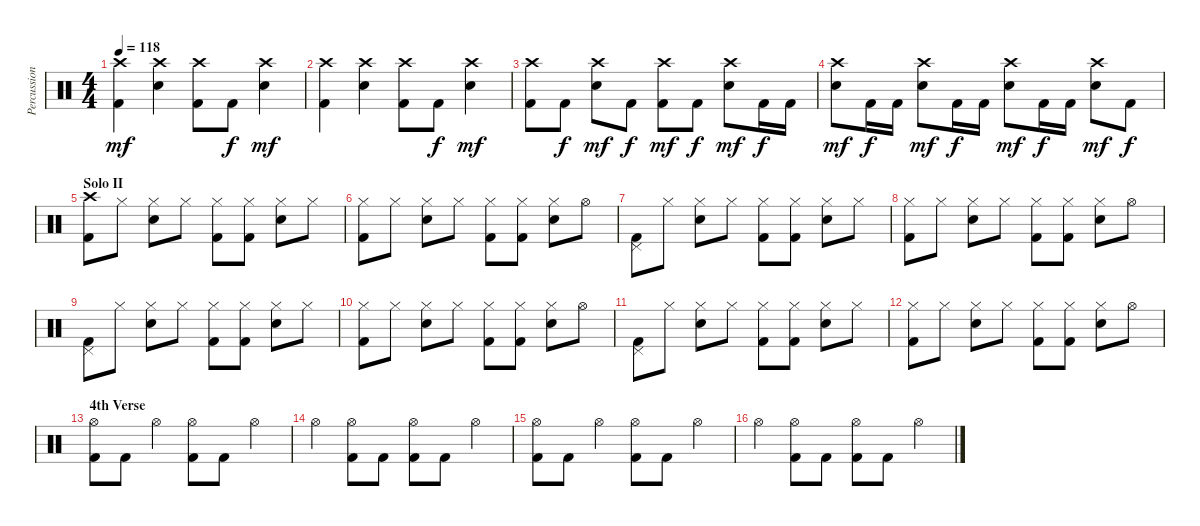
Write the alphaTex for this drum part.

\track ("Percussion" "Percussion") {instrument percussion}
\staff {score}
\articulation defaults
\ts (4 4)
\tempo 118
\clef neutral
\ks c
("Kick (hit) 2" "Crash high (hit)").4{dy mf} ("Electric Snare (hit)" "Crash high (hit)").4 ("Kick (hit) 2" "Crash high (hit)").8 "Kick (hit) 2".8{dy f} ("Electric Snare (hit)" "Crash high (hit)").4{dy mf} |
("Kick (hit) 2" "Crash high (hit)").4 ("Electric Snare (hit)" "Crash high (hit)").4 ("Kick (hit) 2" "Crash high (hit)").8 "Kick (hit) 2".8{dy f} ("Electric Snare (hit)" "Crash high (hit)").4{dy mf} |
("Kick (hit) 2" "Crash high (hit)").8 "Kick (hit) 2".8{dy f} ("Electric Snare (hit)" "Crash high (hit)").8{dy mf} "Kick (hit) 2".8{dy f} ("Kick (hit) 2" "Crash high (hit)").8{dy mf} "Kick (hit) 2".8{dy f} ("Electric Snare (hit)" "Crash high (hit)").8{dy mf} "Kick (hit) 2".16{dy f} "Kick (hit) 2".16 |
("Electric Snare (hit)" "Crash high (hit)").8{dy mf} "Kick (hit) 2".16{dy f} "Kick (hit) 2".16 ("Electric Snare (hit)" "Crash high (hit)").8{dy mf} "Kick (hit) 2".16{dy f} "Kick (hit) 2".16 ("Electric Snare (hit)" "Crash high (hit)").8{dy mf} "Kick (hit) 2".16{dy f} "Kick (hit) 2".16 ("Electric Snare (hit)" "Crash high (hit)").8{dy mf} "Kick (hit) 2".8{dy f} |
\section ("" "Solo II")
("Kick (hit) 2" "Crash high (hit)").8 "Hi-Hat (closed)".8 ("Electric Snare (hit)" "Hi-Hat (closed)").8 "Hi-Hat (closed)".8 ("Kick (hit) 2" "Hi-Hat (closed)").8 ("Kick (hit) 2" "Hi-Hat (closed)").8 ("Electric Snare (hit)" "Hi-Hat (closed)").8 "Hi-Hat (closed)".8 |
("Kick (hit) 2" "Hi-Hat (closed)").8 "Hi-Hat (closed)".8 ("Electric Snare (hit)" "Hi-Hat (closed)").8 "Hi-Hat (closed)".8 ("Kick (hit) 2" "Hi-Hat (closed)").8 ("Kick (hit) 2" "Hi-Hat (closed)").8 ("Electric Snare (hit)" "Hi-Hat (closed)").8 "Hi-Hat (open)".8 |
("Kick (hit) 2" "Pedal Hi-Hat (hit)").8 "Hi-Hat (closed)".8 ("Electric Snare (hit)" "Hi-Hat (closed)").8 "Hi-Hat (closed)".8 ("Kick (hit) 2" "Hi-Hat (closed)").8 ("Kick (hit) 2" "Hi-Hat (closed)").8 ("Electric Snare (hit)" "Hi-Hat (closed)").8 "Hi-Hat (closed)".8 |
("Kick (hit) 2" "Hi-Hat (closed)").8 "Hi-Hat (closed)".8 ("Electric Snare (hit)" "Hi-Hat (closed)").8 "Hi-Hat (closed)".8 ("Kick (hit) 2" "Hi-Hat (closed)").8 ("Kick (hit) 2" "Hi-Hat (closed)").8 ("Electric Snare (hit)" "Hi-Hat (closed)").8 "Hi-Hat (open)".8 |
("Kick (hit) 2" "Pedal Hi-Hat (hit)").8 "Hi-Hat (closed)".8 ("Electric Snare (hit)" "Hi-Hat (closed)").8 "Hi-Hat (closed)".8 ("Kick (hit) 2" "Hi-Hat (closed)").8 ("Kick (hit) 2" "Hi-Hat (closed)").8 ("Electric Snare (hit)" "Hi-Hat (closed)").8 "Hi-Hat (closed)".8 |
("Kick (hit) 2" "Hi-Hat (closed)").8 "Hi-Hat (closed)".8 ("Electric Snare (hit)" "Hi-Hat (closed)").8 "Hi-Hat (closed)".8 ("Kick (hit) 2" "Hi-Hat (closed)").8 ("Kick (hit) 2" "Hi-Hat (closed)").8 ("Electric Snare (hit)" "Hi-Hat (closed)").8 "Hi-Hat (open)".8 |
("Kick (hit) 2" "Pedal Hi-Hat (hit)").8 "Hi-Hat (closed)".8 ("Electric Snare (hit)" "Hi-Hat (closed)").8 "Hi-Hat (closed)".8 ("Kick (hit) 2" "Hi-Hat (closed)").8 ("Kick (hit) 2" "Hi-Hat (closed)").8 ("Electric Snare (hit)" "Hi-Hat (closed)").8 "Hi-Hat (closed)".8 |
("Kick (hit) 2" "Hi-Hat (closed)").8 "Hi-Hat (closed)".8 ("Electric Snare (hit)" "Hi-Hat (closed)").8 "Hi-Hat (closed)".8 ("Kick (hit) 2" "Hi-Hat (closed)").8 ("Kick (hit) 2" "Hi-Hat (closed)").8 ("Electric Snare (hit)" "Hi-Hat (closed)").8 "Hi-Hat (open)".8 |
\section ("" "4th Verse")
("Kick (hit) 2" "Hi-Hat (open)").8 "Kick (hit) 2".8 "Hi-Hat (open)".4 ("Kick (hit) 2" "Hi-Hat (open)").8 "Kick (hit) 2".8 "Hi-Hat (open)".4 |
"Hi-Hat (open)".4 ("Kick (hit) 2" "Hi-Hat (open)").8 "Kick (hit) 2".8 ("Kick (hit) 2" "Hi-Hat (open)").8 "Kick (hit) 2".8 "Hi-Hat (open)".4 |
("Kick (hit) 2" "Hi-Hat (open)").8 "Kick (hit) 2".8 "Hi-Hat (open)".4 ("Kick (hit) 2" "Hi-Hat (open)").8 "Kick (hit) 2".8 "Hi-Hat (open)".4 |
"Hi-Hat (open)".4 ("Kick (hit) 2" "Hi-Hat (open)").8 "Kick (hit) 2".8 ("Kick (hit) 2" "Hi-Hat (open)").8 "Kick (hit) 2".8 "Hi-Hat (open)".4
